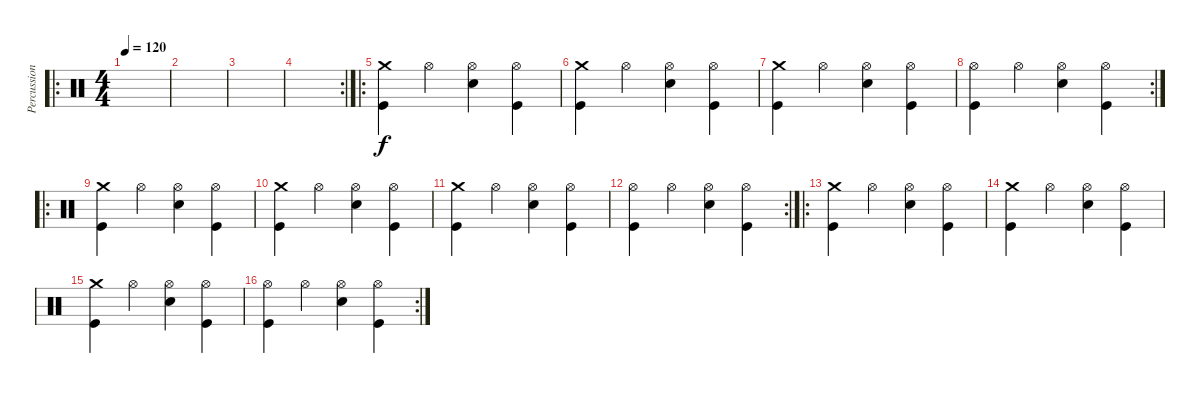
\track ("Percussion" "Percussion") {instrument percussion}
\staff {score}
\articulation defaults
\ro
\ts (4 4)
\tempo 120
\clef neutral
\ks c
|
|
|
\rc 2
|
\ro
("Crash medium (hit)" "Kick (hit)").4 "Hi-Hat (open)".4 ("Hi-Hat (open)" "Snare (hit) 2").4 ("Hi-Hat (open)" "Kick (hit)").4 |
("Crash medium (hit)" "Kick (hit)").4 "Hi-Hat (open)".4 ("Hi-Hat (open)" "Snare (hit) 2").4 ("Hi-Hat (open)" "Kick (hit)").4 |
("Crash medium (hit)" "Kick (hit)").4 "Hi-Hat (open)".4 ("Hi-Hat (open)" "Snare (hit) 2").4 ("Hi-Hat (open)" "Kick (hit)").4 |
\rc 2
("Hi-Hat (open)" "Kick (hit)").4 "Hi-Hat (open)".4 ("Hi-Hat (open)" "Snare (hit) 2").4 ("Hi-Hat (open)" "Kick (hit)").4 |
\ro
("Crash medium (hit)" "Kick (hit)").4 "Hi-Hat (open)".4 ("Hi-Hat (open)" "Snare (hit) 2").4 ("Hi-Hat (open)" "Kick (hit)").4 |
("Crash medium (hit)" "Kick (hit)").4 "Hi-Hat (open)".4 ("Hi-Hat (open)" "Snare (hit) 2").4 ("Hi-Hat (open)" "Kick (hit)").4 |
("Crash medium (hit)" "Kick (hit)").4 "Hi-Hat (open)".4 ("Hi-Hat (open)" "Snare (hit) 2").4 ("Hi-Hat (open)" "Kick (hit)").4 |
\rc 2
("Hi-Hat (open)" "Kick (hit)").4 "Hi-Hat (open)".4 ("Hi-Hat (open)" "Snare (hit) 2").4 ("Hi-Hat (open)" "Kick (hit)").4 |
\ro
("Crash medium (hit)" "Kick (hit)").4 "Hi-Hat (open)".4 ("Hi-Hat (open)" "Snare (hit) 2").4 ("Hi-Hat (open)" "Kick (hit)").4 |
("Crash medium (hit)" "Kick (hit)").4 "Hi-Hat (open)".4 ("Hi-Hat (open)" "Snare (hit) 2").4 ("Hi-Hat (open)" "Kick (hit)").4 |
("Crash medium (hit)" "Kick (hit)").4 "Hi-Hat (open)".4 ("Hi-Hat (open)" "Snare (hit) 2").4 ("Hi-Hat (open)" "Kick (hit)").4 |
\rc 2
("Hi-Hat (open)" "Kick (hit)").4 "Hi-Hat (open)".4 ("Hi-Hat (open)" "Snare (hit) 2").4 ("Hi-Hat (open)" "Kick (hit)").4
